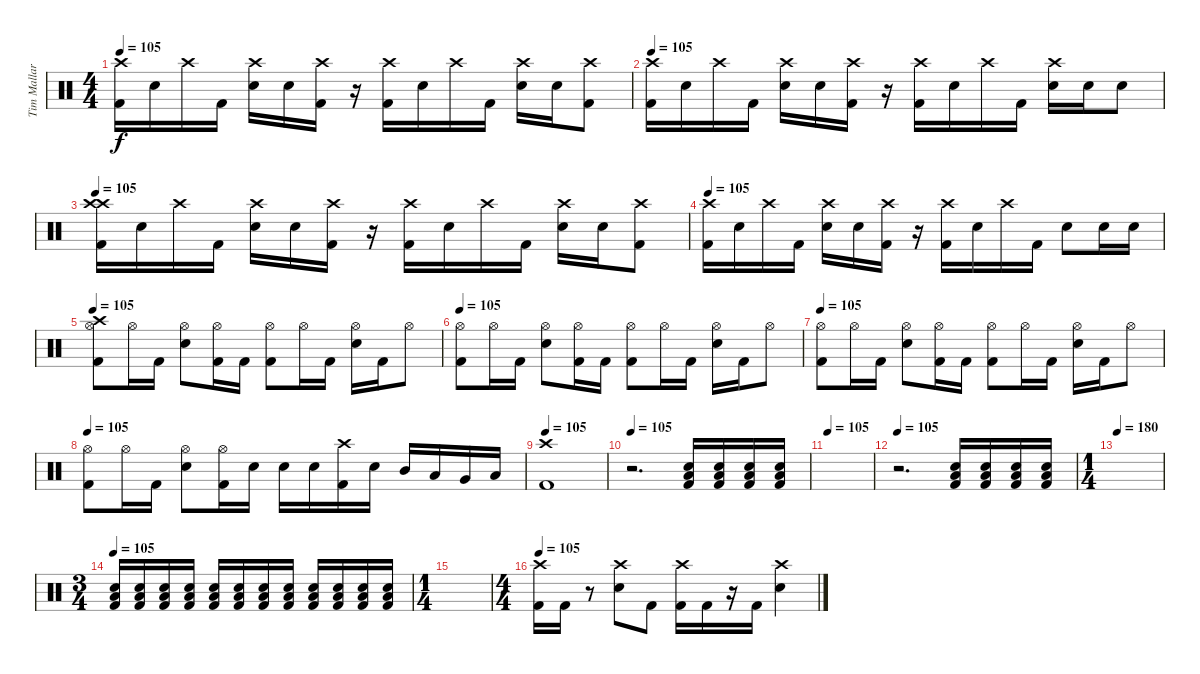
\track ("Tim Mallare" "Tim Mallar") {instrument percussion}
\staff {score}
\articulation defaults
\ts (4 4)
\tempo 105
\clef neutral
\ks c
("Crash high (hit)" "Kick (hit) 2").16{dy f} "Electric Snare (hit)".16 "Crash high (hit)".16 "Kick (hit) 2".16 ("Crash high (hit)" "Electric Snare (hit)").16 "Electric Snare (hit)".16 ("Crash high (hit)" "Kick (hit) 2").16 r.16 ("Crash high (hit)" "Kick (hit) 2").16 "Electric Snare (hit)".16 "Crash high (hit)".16 "Kick (hit) 2".16 ("Crash high (hit)" "Electric Snare (hit)").16 "Electric Snare (hit)".16 ("Crash high (hit)" "Kick (hit) 2").8 |
\tempo 105
("Crash high (hit)" "Kick (hit) 2").16 "Electric Snare (hit)".16 "Crash high (hit)".16 "Kick (hit) 2".16 ("Crash high (hit)" "Electric Snare (hit)").16 "Electric Snare (hit)".16 ("Crash high (hit)" "Kick (hit) 2").16 r.16 ("Crash high (hit)" "Kick (hit) 2").16 "Electric Snare (hit)".16 "Crash high (hit)".16 "Kick (hit) 2".16 ("Crash high (hit)" "Electric Snare (hit)").16 "Electric Snare (hit)".16 "Electric Snare (hit)".8 |
\tempo 105
("Crash high (hit)" "Crash high (hit)" "Kick (hit) 2").16 "Electric Snare (hit)".16 "Crash high (hit)".16 "Kick (hit) 2".16 ("Crash high (hit)" "Electric Snare (hit)").16 "Electric Snare (hit)".16 ("Crash high (hit)" "Kick (hit) 2").16 r.16 ("Crash high (hit)" "Kick (hit) 2").16 "Electric Snare (hit)".16 "Crash high (hit)".16 "Kick (hit) 2".16 ("Crash high (hit)" "Electric Snare (hit)").16 "Electric Snare (hit)".16 ("Crash high (hit)" "Kick (hit) 2").8 |
\tempo 105
("Crash high (hit)" "Kick (hit) 2").16 "Electric Snare (hit)".16 "Crash high (hit)".16 "Kick (hit) 2".16 ("Crash high (hit)" "Electric Snare (hit)").16 "Electric Snare (hit)".16 ("Crash high (hit)" "Kick (hit) 2").16 r.16 ("Crash high (hit)" "Kick (hit) 2").16 "Electric Snare (hit)".16 "Crash high (hit)".16 "Kick (hit) 2".16 "Electric Snare (hit)".8 "Electric Snare (hit)".16 "Electric Snare (hit)".16 |
\tempo 105
("Crash high (hit)" "Hi-Hat (open)" "Kick (hit) 2").8 "Hi-Hat (open)".16 "Kick (hit) 2".16 ("Hi-Hat (open)" "Electric Snare (hit)").8 ("Hi-Hat (open)" "Kick (hit) 2").16 "Kick (hit) 2".16 ("Hi-Hat (open)" "Kick (hit) 2").8 "Hi-Hat (open)".16 "Kick (hit) 2".16 ("Hi-Hat (open)" "Electric Snare (hit)").16 "Kick (hit) 2".16 "Hi-Hat (open)".8 |
\tempo 105
("Hi-Hat (open)" "Kick (hit) 2").8 "Hi-Hat (open)".16 "Kick (hit) 2".16 ("Hi-Hat (open)" "Electric Snare (hit)").8 ("Hi-Hat (open)" "Kick (hit) 2").16 "Kick (hit) 2".16 ("Hi-Hat (open)" "Kick (hit) 2").8 "Hi-Hat (open)".16 "Kick (hit) 2".16 ("Hi-Hat (open)" "Electric Snare (hit)").16 "Kick (hit) 2".16 "Hi-Hat (open)".8 |
\tempo 105
("Hi-Hat (open)" "Kick (hit) 2").8 "Hi-Hat (open)".16 "Kick (hit) 2".16 ("Hi-Hat (open)" "Electric Snare (hit)").8 ("Hi-Hat (open)" "Kick (hit) 2").16 "Kick (hit) 2".16 ("Hi-Hat (open)" "Kick (hit) 2").8 "Hi-Hat (open)".16 "Kick (hit) 2".16 ("Hi-Hat (open)" "Electric Snare (hit)").16 "Kick (hit) 2".16 "Hi-Hat (open)".8 |
\tempo 105
("Hi-Hat (open)" "Kick (hit) 2").8 "Hi-Hat (open)".16 "Kick (hit) 2".16 ("Hi-Hat (open)" "Electric Snare (hit)").8 ("Hi-Hat (open)" "Kick (hit) 2").16 "Electric Snare (hit)".16 "Electric Snare (hit)".16 "Electric Snare (hit)".16 ("Crash high (hit)" "Kick (hit) 2").16 "Electric Snare (hit)".16 "Mid Tom (hit)".16 "Low Tom (hit)".16 "Very Low Tom (hit)".16 "Low Floor Tom (hit)".16 |
\tempo 105
("Crash high (hit)" "Kick (hit) 2").1 |
\tempo 105
r.2{d} ("Electric Snare (hit)" "Kick (hit) 2" "Low Floor Tom (hit)").16 ("Electric Snare (hit)" "Kick (hit) 2" "Low Floor Tom (hit)").16 ("Electric Snare (hit)" "Kick (hit) 2" "Low Floor Tom (hit)").16 ("Electric Snare (hit)" "Kick (hit) 2" "Low Floor Tom (hit)").16 |
\tempo 105
|
\tempo 105
r.2{d} ("Electric Snare (hit)" "Kick (hit) 2" "Low Floor Tom (hit)").16 ("Electric Snare (hit)" "Kick (hit) 2" "Low Floor Tom (hit)").16 ("Electric Snare (hit)" "Kick (hit) 2" "Low Floor Tom (hit)").16 ("Electric Snare (hit)" "Kick (hit) 2" "Low Floor Tom (hit)").16 |
\ts (1 4)
\tempo 180
|
\ts (3 4)
\tempo 105
("Kick (hit) 2" "Electric Snare (hit)" "Low Floor Tom (hit)").16 ("Kick (hit) 2" "Electric Snare (hit)" "Low Floor Tom (hit)").16 ("Kick (hit) 2" "Electric Snare (hit)" "Low Floor Tom (hit)").16 ("Kick (hit) 2" "Electric Snare (hit)" "Low Floor Tom (hit)").16 ("Kick (hit) 2" "Electric Snare (hit)" "Low Floor Tom (hit)").16 ("Kick (hit) 2" "Electric Snare (hit)" "Low Floor Tom (hit)").16 ("Kick (hit) 2" "Electric Snare (hit)" "Low Floor Tom (hit)").16 ("Kick (hit) 2" "Electric Snare (hit)" "Low Floor Tom (hit)").16 ("Kick (hit) 2" "Electric Snare (hit)" "Low Floor Tom (hit)").16 ("Kick (hit) 2" "Electric Snare (hit)" "Low Floor Tom (hit)").16 ("Kick (hit) 2" "Electric Snare (hit)" "Low Floor Tom (hit)").16 ("Kick (hit) 2" "Electric Snare (hit)" "Low Floor Tom (hit)").16 |
\ts (1 4)
|
\ts (4 4)
\tempo 105
("Crash high (hit)" "Kick (hit) 2").16 "Kick (hit) 2".16 r.8 ("Crash high (hit)" "Electric Snare (hit)").8 "Kick (hit) 2".8 ("Crash high (hit)" "Kick (hit) 2").16 "Kick (hit) 2".16 r.16 "Kick (hit) 2".16 ("Crash high (hit)" "Electric Snare (hit)").4
